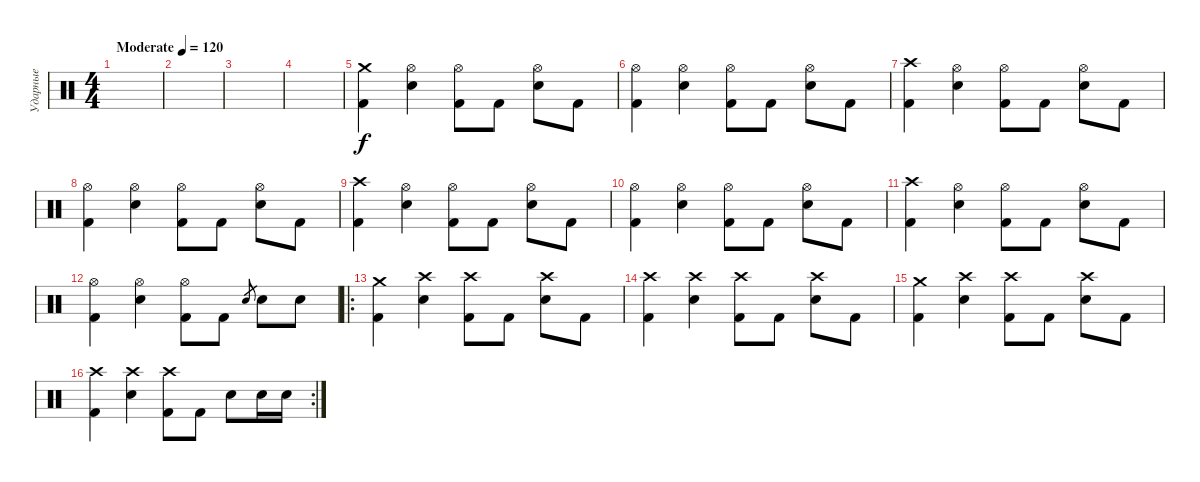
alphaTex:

\track ("Ударные" "Ударные") {instrument percussion}
\staff {score}
\articulation defaults
\ts (4 4)
\tempo (120 "Moderate")
\clef neutral
\ks c
|
|
|
|
("Crash medium (hit)" "Kick (hit) 2").4 ("Hi-Hat (open)" "Electric Snare (hit)").4 ("Hi-Hat (open)" "Kick (hit) 2").8 "Kick (hit) 2".8 ("Hi-Hat (open)" "Electric Snare (hit)").8 "Kick (hit) 2".8 |
("Hi-Hat (open)" "Kick (hit) 2").4 ("Hi-Hat (open)" "Electric Snare (hit)").4 ("Hi-Hat (open)" "Kick (hit) 2").8 "Kick (hit) 2".8 ("Hi-Hat (open)" "Electric Snare (hit)").8 "Kick (hit) 2".8 |
("Crash high (hit)" "Kick (hit) 2").4 ("Hi-Hat (open)" "Electric Snare (hit)").4 ("Hi-Hat (open)" "Kick (hit) 2").8 "Kick (hit) 2".8 ("Hi-Hat (open)" "Electric Snare (hit)").8 "Kick (hit) 2".8 |
("Hi-Hat (open)" "Kick (hit) 2").4 ("Hi-Hat (open)" "Electric Snare (hit)").4 ("Hi-Hat (open)" "Kick (hit) 2").8 "Kick (hit) 2".8 ("Hi-Hat (open)" "Electric Snare (hit)").8 "Kick (hit) 2".8 |
("Crash high (hit)" "Kick (hit) 2").4 ("Hi-Hat (open)" "Electric Snare (hit)").4 ("Hi-Hat (open)" "Kick (hit) 2").8 "Kick (hit) 2".8 ("Hi-Hat (open)" "Electric Snare (hit)").8 "Kick (hit) 2".8 |
("Hi-Hat (open)" "Kick (hit) 2").4 ("Hi-Hat (open)" "Electric Snare (hit)").4 ("Hi-Hat (open)" "Kick (hit) 2").8 "Kick (hit) 2".8 ("Hi-Hat (open)" "Electric Snare (hit)").8 "Kick (hit) 2".8 |
("Crash high (hit)" "Kick (hit) 2").4 ("Hi-Hat (open)" "Electric Snare (hit)").4 ("Hi-Hat (open)" "Kick (hit) 2").8 "Kick (hit) 2".8 ("Hi-Hat (open)" "Electric Snare (hit)").8 "Kick (hit) 2".8 |
("Hi-Hat (open)" "Kick (hit) 2").4 ("Hi-Hat (open)" "Electric Snare (hit)").4 ("Hi-Hat (open)" "Kick (hit) 2").8 "Kick (hit) 2".8 "Electric Snare (hit)".8{gr} "Electric Snare (hit)".8 "Electric Snare (hit)".8 |
\ro
("Kick (hit) 2" "Crash medium (hit)").4 ("Electric Snare (hit)" "Crash high (hit)").4 ("Kick (hit) 2" "Crash high (hit)").8 "Kick (hit) 2".8 ("Electric Snare (hit)" "Crash high (hit)").8 "Kick (hit) 2".8 |
("Kick (hit) 2" "Crash high (hit)").4 ("Electric Snare (hit)" "Crash high (hit)").4 ("Kick (hit) 2" "Crash high (hit)").8 "Kick (hit) 2".8 ("Electric Snare (hit)" "Crash high (hit)").8 "Kick (hit) 2".8 |
("Kick (hit) 2" "Crash medium (hit)").4 ("Electric Snare (hit)" "Crash high (hit)").4 ("Kick (hit) 2" "Crash high (hit)").8 "Kick (hit) 2".8 ("Electric Snare (hit)" "Crash high (hit)").8 "Kick (hit) 2".8 |
\rc 2
("Kick (hit) 2" "Crash high (hit)").4 ("Electric Snare (hit)" "Crash high (hit)").4 ("Kick (hit) 2" "Crash high (hit)").8 "Kick (hit) 2".8 "Electric Snare (hit)".8 "Electric Snare (hit)".16 "Electric Snare (hit)".16
